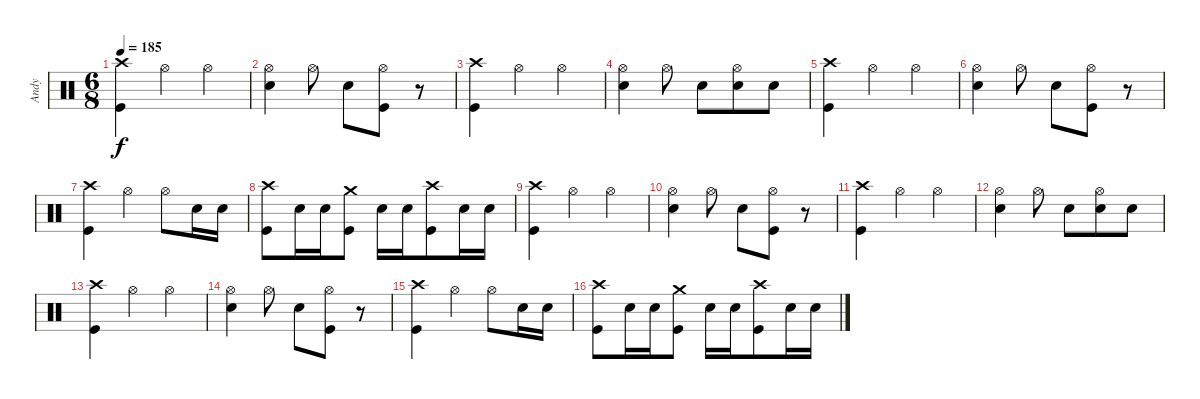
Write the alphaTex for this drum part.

\track ("Andy" "Andy") {instrument percussion}
\staff {score}
\articulation defaults
\ts (6 8)
\tempo 185
\clef neutral
\ks c
("Kick (hit)" "Crash high (hit)").4{dy f} "Hi-Hat (open)".4 "Hi-Hat (open)".4 |
("Hi-Hat (open)" "Snare (hit) 2").4 "Hi-Hat (open)".8 "Snare (hit) 2".8 ("Kick (hit)" "Hi-Hat (open)").8 r.8 |
("Kick (hit)" "Crash high (hit)").4 "Hi-Hat (open)".4 "Hi-Hat (open)".4 |
("Hi-Hat (open)" "Snare (hit) 2").4 "Hi-Hat (open)".8 "Snare (hit) 2".8 ("Snare (hit) 2" "Hi-Hat (open)").8 "Snare (hit) 2".8 |
("Kick (hit)" "Crash high (hit)").4 "Hi-Hat (open)".4 "Hi-Hat (open)".4 |
("Hi-Hat (open)" "Snare (hit) 2").4 "Hi-Hat (open)".8 "Snare (hit) 2".8 ("Kick (hit)" "Hi-Hat (open)").8 r.8 |
("Kick (hit)" "Crash high (hit)").4 "Hi-Hat (open)".4 "Hi-Hat (open)".8 "Snare (hit) 2".16 "Snare (hit) 2".16 |
("Kick (hit)" "Crash high (hit)").8 "Snare (hit) 2".16 "Snare (hit) 2".16 ("Kick (hit)" "Crash medium (hit)").8 "Snare (hit) 2".16 "Snare (hit) 2".16 ("Kick (hit)" "Crash high (hit)").8 "Snare (hit) 2".16 "Snare (hit) 2".16 |
("Kick (hit)" "Crash high (hit)").4 "Hi-Hat (open)".4 "Hi-Hat (open)".4 |
("Hi-Hat (open)" "Snare (hit) 2").4 "Hi-Hat (open)".8 "Snare (hit) 2".8 ("Kick (hit)" "Hi-Hat (open)").8 r.8 |
("Kick (hit)" "Crash high (hit)").4 "Hi-Hat (open)".4 "Hi-Hat (open)".4 |
("Hi-Hat (open)" "Snare (hit) 2").4 "Hi-Hat (open)".8 "Snare (hit) 2".8 ("Snare (hit) 2" "Hi-Hat (open)").8 "Snare (hit) 2".8 |
("Kick (hit)" "Crash high (hit)").4 "Hi-Hat (open)".4 "Hi-Hat (open)".4 |
("Hi-Hat (open)" "Snare (hit) 2").4 "Hi-Hat (open)".8 "Snare (hit) 2".8 ("Kick (hit)" "Hi-Hat (open)").8 r.8 |
("Kick (hit)" "Crash high (hit)").4 "Hi-Hat (open)".4 "Hi-Hat (open)".8 "Snare (hit) 2".16 "Snare (hit) 2".16 |
("Kick (hit)" "Crash high (hit)").8 "Snare (hit) 2".16 "Snare (hit) 2".16 ("Kick (hit)" "Crash medium (hit)").8 "Snare (hit) 2".16 "Snare (hit) 2".16 ("Kick (hit)" "Crash high (hit)").8 "Snare (hit) 2".16 "Snare (hit) 2".16
